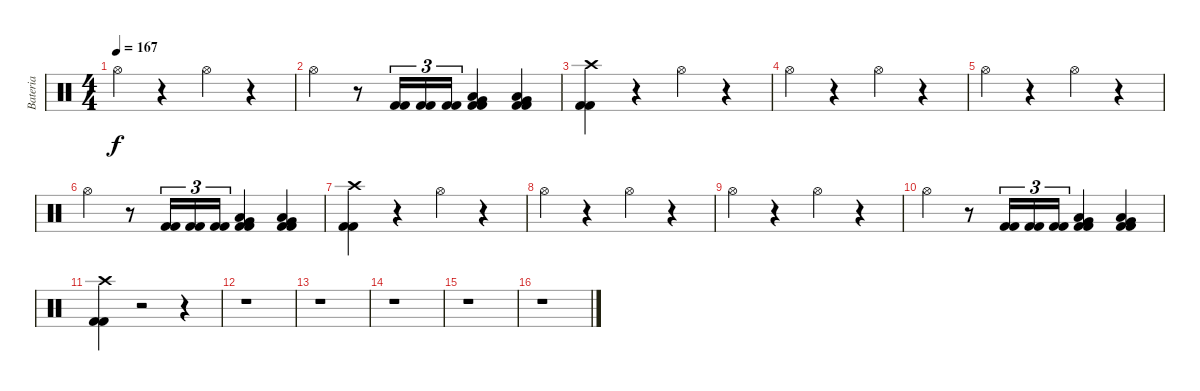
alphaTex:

\track ("Bateria" "Bateria") {instrument percussion}
\staff {score}
\articulation defaults
\ts (4 4)
\tempo 167
\clef neutral
\ks c "Hi-Hat (open)".4{dy f}
r.4 "Hi-Hat (open)".4 r.4 |
"Hi-Hat (open)".4 r.8 ("Kick (hit) 2" "Kick (hit) 2").16{tu (3 2)} ("Kick (hit) 2" "Kick (hit) 2").16{tu (3 2)} ("Kick (hit) 2" "Kick (hit) 2").16{tu (3 2)} ("Kick (hit) 2" "Kick (hit) 2" "Low Tom (hit)" "Very Low Tom (hit)").4 ("Kick (hit) 2" "Kick (hit) 2" "Low Tom (hit)" "Very Low Tom (hit)").4 |
("Kick (hit) 2" "Kick (hit) 2" "Crash high (hit)").4 r.4 "Hi-Hat (open)".4 r.4 |
"Hi-Hat (open)".4 r.4 "Hi-Hat (open)".4 r.4 |
"Hi-Hat (open)".4 r.4 "Hi-Hat (open)".4 r.4 |
"Hi-Hat (open)".4 r.8 ("Kick (hit) 2" "Kick (hit) 2").16{tu (3 2)} ("Kick (hit) 2" "Kick (hit) 2").16{tu (3 2)} ("Kick (hit) 2" "Kick (hit) 2").16{tu (3 2)} ("Kick (hit) 2" "Kick (hit) 2" "Low Tom (hit)" "Very Low Tom (hit)").4 ("Kick (hit) 2" "Kick (hit) 2" "Low Tom (hit)" "Very Low Tom (hit)").4 |
("Kick (hit) 2" "Kick (hit) 2" "Crash high (hit)").4 r.4 "Hi-Hat (open)".4 r.4 |
"Hi-Hat (open)".4 r.4 "Hi-Hat (open)".4 r.4 |
"Hi-Hat (open)".4 r.4 "Hi-Hat (open)".4 r.4 |
"Hi-Hat (open)".4 r.8 ("Kick (hit) 2" "Kick (hit) 2").16{tu (3 2)} ("Kick (hit) 2" "Kick (hit) 2").16{tu (3 2)} ("Kick (hit) 2" "Kick (hit) 2").16{tu (3 2)} ("Kick (hit) 2" "Kick (hit) 2" "Low Tom (hit)" "Very Low Tom (hit)").4 ("Kick (hit) 2" "Kick (hit) 2" "Low Tom (hit)" "Very Low Tom (hit)").4 |
("Kick (hit) 2" "Kick (hit) 2" "Crash high (hit)").4 r.2 r.4 |
r.1 |
r.1 |
r.1 |
r.1 |
r.1
